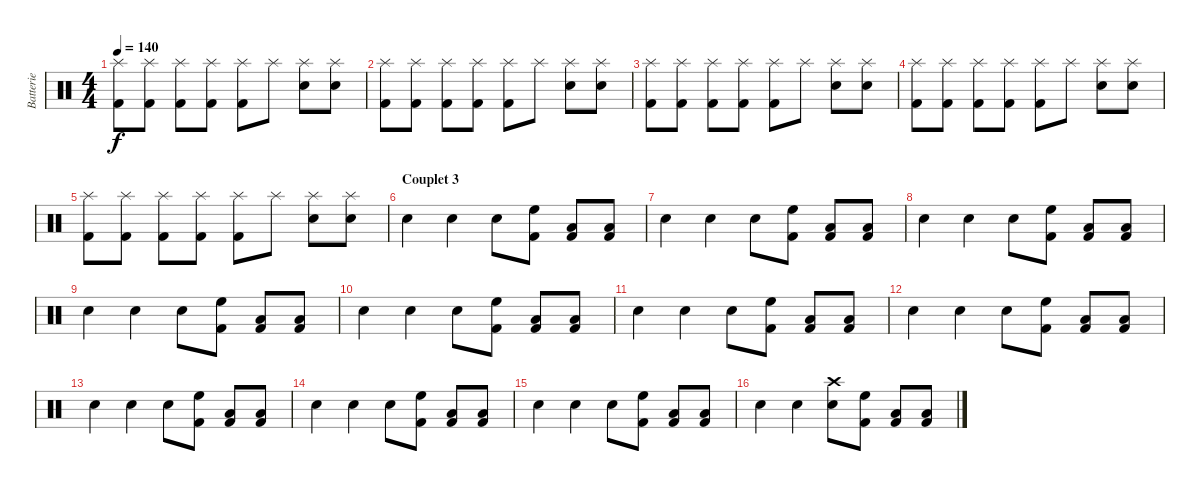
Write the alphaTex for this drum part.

\track ("Batterie" "Batterie") {instrument percussion}
\staff {score}
\articulation defaults
\ts (4 4)
\tempo 140
\clef neutral
\ks c
("Splash (hit)" "Kick (hit) 2").8{dy f} ("Splash (hit)" "Kick (hit) 2").8 ("Splash (hit)" "Kick (hit) 2").8 ("Splash (hit)" "Kick (hit) 2").8 ("Splash (hit)" "Kick (hit) 2").8 "Splash (hit)".8 ("Splash (hit)" "Snare (hit) 2").8 ("Splash (hit)" "Snare (hit) 2").8 |
("Splash (hit)" "Kick (hit) 2").8 ("Splash (hit)" "Kick (hit) 2").8 ("Splash (hit)" "Kick (hit) 2").8 ("Splash (hit)" "Kick (hit) 2").8 ("Splash (hit)" "Kick (hit) 2").8 "Splash (hit)".8 ("Splash (hit)" "Snare (hit) 2").8 ("Splash (hit)" "Snare (hit) 2").8 |
("Splash (hit)" "Kick (hit) 2").8 ("Splash (hit)" "Kick (hit) 2").8 ("Splash (hit)" "Kick (hit) 2").8 ("Splash (hit)" "Kick (hit) 2").8 ("Splash (hit)" "Kick (hit) 2").8 "Splash (hit)".8 ("Splash (hit)" "Snare (hit) 2").8 ("Splash (hit)" "Snare (hit) 2").8 |
("Splash (hit)" "Kick (hit) 2").8 ("Splash (hit)" "Kick (hit) 2").8 ("Splash (hit)" "Kick (hit) 2").8 ("Splash (hit)" "Kick (hit) 2").8 ("Splash (hit)" "Kick (hit) 2").8 "Splash (hit)".8 ("Splash (hit)" "Snare (hit) 2").8 ("Splash (hit)" "Snare (hit) 2").8 |
("Splash (hit)" "Kick (hit) 2").8 ("Splash (hit)" "Kick (hit) 2").8 ("Splash (hit)" "Kick (hit) 2").8 ("Splash (hit)" "Kick (hit) 2").8 ("Splash (hit)" "Kick (hit) 2").8 "Splash (hit)".8 ("Splash (hit)" "Snare (hit) 2").8 ("Splash (hit)" "Snare (hit) 2").8 |
\section ("" "Couplet 3")
"Snare (hit) 2".4 "Snare (hit) 2".4 "Snare (hit) 2".8 ("High Floor Tom (hit)" "Kick (hit) 2").8 ("Low Floor Tom (hit)" "Kick (hit) 2").8 ("Low Floor Tom (hit)" "Kick (hit) 2").8 |
"Snare (hit) 2".4 "Snare (hit) 2".4 "Snare (hit) 2".8 ("High Floor Tom (hit)" "Kick (hit) 2").8 ("Low Floor Tom (hit)" "Kick (hit) 2").8 ("Low Floor Tom (hit)" "Kick (hit) 2").8 |
"Snare (hit) 2".4 "Snare (hit) 2".4 "Snare (hit) 2".8 ("High Floor Tom (hit)" "Kick (hit) 2").8 ("Low Floor Tom (hit)" "Kick (hit) 2").8 ("Low Floor Tom (hit)" "Kick (hit) 2").8 |
"Snare (hit) 2".4 "Snare (hit) 2".4 "Snare (hit) 2".8 ("High Floor Tom (hit)" "Kick (hit) 2").8 ("Low Floor Tom (hit)" "Kick (hit) 2").8 ("Low Floor Tom (hit)" "Kick (hit) 2").8 |
"Snare (hit) 2".4 "Snare (hit) 2".4 "Snare (hit) 2".8 ("High Floor Tom (hit)" "Kick (hit) 2").8 ("Low Floor Tom (hit)" "Kick (hit) 2").8 ("Low Floor Tom (hit)" "Kick (hit) 2").8 |
"Snare (hit) 2".4 "Snare (hit) 2".4 "Snare (hit) 2".8 ("High Floor Tom (hit)" "Kick (hit) 2").8 ("Low Floor Tom (hit)" "Kick (hit) 2").8 ("Low Floor Tom (hit)" "Kick (hit) 2").8 |
"Snare (hit) 2".4 "Snare (hit) 2".4 "Snare (hit) 2".8 ("High Floor Tom (hit)" "Kick (hit) 2").8 ("Low Floor Tom (hit)" "Kick (hit) 2").8 ("Low Floor Tom (hit)" "Kick (hit) 2").8 |
"Snare (hit) 2".4 "Snare (hit) 2".4 "Snare (hit) 2".8 ("High Floor Tom (hit)" "Kick (hit) 2").8 ("Low Floor Tom (hit)" "Kick (hit) 2").8 ("Low Floor Tom (hit)" "Kick (hit) 2").8 |
"Snare (hit) 2".4 "Snare (hit) 2".4 "Snare (hit) 2".8 ("High Floor Tom (hit)" "Kick (hit) 2").8 ("Low Floor Tom (hit)" "Kick (hit) 2").8 ("Low Floor Tom (hit)" "Kick (hit) 2").8 |
"Snare (hit) 2".4 "Snare (hit) 2".4 "Snare (hit) 2".8 ("High Floor Tom (hit)" "Kick (hit) 2").8 ("Low Floor Tom (hit)" "Kick (hit) 2").8 ("Low Floor Tom (hit)" "Kick (hit) 2").8 |
"Snare (hit) 2".4 "Snare (hit) 2".4 ("Snare (hit) 2" "Crash high (hit)").8 ("High Floor Tom (hit)" "Kick (hit) 2").8 ("Low Floor Tom (hit)" "Kick (hit) 2").8 ("Low Floor Tom (hit)" "Kick (hit) 2").8
